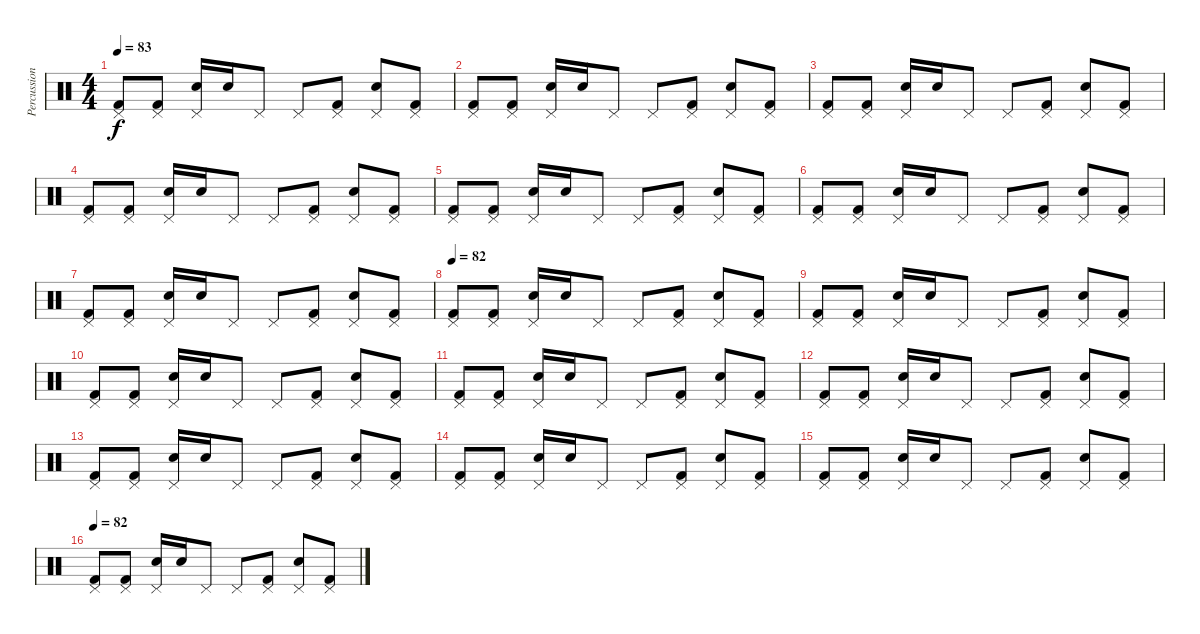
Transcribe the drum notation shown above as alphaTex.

\track ("Percussion" "Percussion") {instrument percussion}
\staff {score}
\articulation defaults
\ts (4 4)
\tempo 83
\clef neutral
\ks c
("Pedal Hi-Hat (hit)" "Kick (hit) 2").8{dy f} ("Pedal Hi-Hat (hit)" "Kick (hit) 2").8 ("Pedal Hi-Hat (hit)" "Snare (hit) 2").16 "Snare (hit) 2".16 "Pedal Hi-Hat (hit)".8 "Pedal Hi-Hat (hit)".8 ("Pedal Hi-Hat (hit)" "Kick (hit) 2").8 ("Pedal Hi-Hat (hit)" "Snare (hit) 2").8 ("Pedal Hi-Hat (hit)" "Kick (hit) 2").8 |
("Pedal Hi-Hat (hit)" "Kick (hit) 2").8 ("Pedal Hi-Hat (hit)" "Kick (hit) 2").8 ("Pedal Hi-Hat (hit)" "Snare (hit) 2").16 "Snare (hit) 2".16 "Pedal Hi-Hat (hit)".8 "Pedal Hi-Hat (hit)".8 ("Pedal Hi-Hat (hit)" "Kick (hit) 2").8 ("Pedal Hi-Hat (hit)" "Snare (hit) 2").8 ("Pedal Hi-Hat (hit)" "Kick (hit) 2").8 |
("Pedal Hi-Hat (hit)" "Kick (hit) 2").8 ("Pedal Hi-Hat (hit)" "Kick (hit) 2").8 ("Pedal Hi-Hat (hit)" "Snare (hit) 2").16 "Snare (hit) 2".16 "Pedal Hi-Hat (hit)".8 "Pedal Hi-Hat (hit)".8 ("Pedal Hi-Hat (hit)" "Kick (hit) 2").8 ("Pedal Hi-Hat (hit)" "Snare (hit) 2").8 ("Pedal Hi-Hat (hit)" "Kick (hit) 2").8 |
("Pedal Hi-Hat (hit)" "Kick (hit) 2").8 ("Pedal Hi-Hat (hit)" "Kick (hit) 2").8 ("Pedal Hi-Hat (hit)" "Snare (hit) 2").16 "Snare (hit) 2".16 "Pedal Hi-Hat (hit)".8 "Pedal Hi-Hat (hit)".8 ("Pedal Hi-Hat (hit)" "Kick (hit) 2").8 ("Pedal Hi-Hat (hit)" "Snare (hit) 2").8 ("Pedal Hi-Hat (hit)" "Kick (hit) 2").8 |
("Pedal Hi-Hat (hit)" "Kick (hit) 2").8 ("Pedal Hi-Hat (hit)" "Kick (hit) 2").8 ("Pedal Hi-Hat (hit)" "Snare (hit) 2").16 "Snare (hit) 2".16 "Pedal Hi-Hat (hit)".8 "Pedal Hi-Hat (hit)".8 ("Pedal Hi-Hat (hit)" "Kick (hit) 2").8 ("Pedal Hi-Hat (hit)" "Snare (hit) 2").8 ("Pedal Hi-Hat (hit)" "Kick (hit) 2").8 |
("Pedal Hi-Hat (hit)" "Kick (hit) 2").8 ("Pedal Hi-Hat (hit)" "Kick (hit) 2").8 ("Pedal Hi-Hat (hit)" "Snare (hit) 2").16 "Snare (hit) 2".16 "Pedal Hi-Hat (hit)".8 "Pedal Hi-Hat (hit)".8 ("Pedal Hi-Hat (hit)" "Kick (hit) 2").8 ("Pedal Hi-Hat (hit)" "Snare (hit) 2").8 ("Pedal Hi-Hat (hit)" "Kick (hit) 2").8 |
("Pedal Hi-Hat (hit)" "Kick (hit) 2").8 ("Pedal Hi-Hat (hit)" "Kick (hit) 2").8 ("Pedal Hi-Hat (hit)" "Snare (hit) 2").16 "Snare (hit) 2".16 "Pedal Hi-Hat (hit)".8 "Pedal Hi-Hat (hit)".8 ("Pedal Hi-Hat (hit)" "Kick (hit) 2").8 ("Pedal Hi-Hat (hit)" "Snare (hit) 2").8 ("Pedal Hi-Hat (hit)" "Kick (hit) 2").8 |
\tempo 82
("Pedal Hi-Hat (hit)" "Kick (hit) 2").8 ("Pedal Hi-Hat (hit)" "Kick (hit) 2").8 ("Pedal Hi-Hat (hit)" "Snare (hit) 2").16 "Snare (hit) 2".16 "Pedal Hi-Hat (hit)".8 "Pedal Hi-Hat (hit)".8 ("Pedal Hi-Hat (hit)" "Kick (hit) 2").8 ("Pedal Hi-Hat (hit)" "Snare (hit) 2").8 ("Pedal Hi-Hat (hit)" "Kick (hit) 2").8 |
("Pedal Hi-Hat (hit)" "Kick (hit) 2").8 ("Pedal Hi-Hat (hit)" "Kick (hit) 2").8 ("Pedal Hi-Hat (hit)" "Snare (hit) 2").16 "Snare (hit) 2".16 "Pedal Hi-Hat (hit)".8 "Pedal Hi-Hat (hit)".8 ("Pedal Hi-Hat (hit)" "Kick (hit) 2").8 ("Pedal Hi-Hat (hit)" "Snare (hit) 2").8 ("Pedal Hi-Hat (hit)" "Kick (hit) 2").8 |
("Pedal Hi-Hat (hit)" "Kick (hit) 2").8 ("Pedal Hi-Hat (hit)" "Kick (hit) 2").8 ("Pedal Hi-Hat (hit)" "Snare (hit) 2").16 "Snare (hit) 2".16 "Pedal Hi-Hat (hit)".8 "Pedal Hi-Hat (hit)".8 ("Pedal Hi-Hat (hit)" "Kick (hit) 2").8 ("Pedal Hi-Hat (hit)" "Snare (hit) 2").8 ("Pedal Hi-Hat (hit)" "Kick (hit) 2").8 |
("Pedal Hi-Hat (hit)" "Kick (hit) 2").8 ("Pedal Hi-Hat (hit)" "Kick (hit) 2").8 ("Pedal Hi-Hat (hit)" "Snare (hit) 2").16 "Snare (hit) 2".16 "Pedal Hi-Hat (hit)".8 "Pedal Hi-Hat (hit)".8 ("Pedal Hi-Hat (hit)" "Kick (hit) 2").8 ("Pedal Hi-Hat (hit)" "Snare (hit) 2").8 ("Pedal Hi-Hat (hit)" "Kick (hit) 2").8 |
("Pedal Hi-Hat (hit)" "Kick (hit) 2").8 ("Pedal Hi-Hat (hit)" "Kick (hit) 2").8 ("Pedal Hi-Hat (hit)" "Snare (hit) 2").16 "Snare (hit) 2".16 "Pedal Hi-Hat (hit)".8 "Pedal Hi-Hat (hit)".8 ("Pedal Hi-Hat (hit)" "Kick (hit) 2").8 ("Pedal Hi-Hat (hit)" "Snare (hit) 2").8 ("Pedal Hi-Hat (hit)" "Kick (hit) 2").8 |
("Pedal Hi-Hat (hit)" "Kick (hit) 2").8 ("Pedal Hi-Hat (hit)" "Kick (hit) 2").8 ("Pedal Hi-Hat (hit)" "Snare (hit) 2").16 "Snare (hit) 2".16 "Pedal Hi-Hat (hit)".8 "Pedal Hi-Hat (hit)".8 ("Pedal Hi-Hat (hit)" "Kick (hit) 2").8 ("Pedal Hi-Hat (hit)" "Snare (hit) 2").8 ("Pedal Hi-Hat (hit)" "Kick (hit) 2").8 |
("Pedal Hi-Hat (hit)" "Kick (hit) 2").8 ("Pedal Hi-Hat (hit)" "Kick (hit) 2").8 ("Pedal Hi-Hat (hit)" "Snare (hit) 2").16 "Snare (hit) 2".16 "Pedal Hi-Hat (hit)".8 "Pedal Hi-Hat (hit)".8 ("Pedal Hi-Hat (hit)" "Kick (hit) 2").8 ("Pedal Hi-Hat (hit)" "Snare (hit) 2").8 ("Pedal Hi-Hat (hit)" "Kick (hit) 2").8 |
("Pedal Hi-Hat (hit)" "Kick (hit) 2").8 ("Pedal Hi-Hat (hit)" "Kick (hit) 2").8 ("Pedal Hi-Hat (hit)" "Snare (hit) 2").16 "Snare (hit) 2".16 "Pedal Hi-Hat (hit)".8 "Pedal Hi-Hat (hit)".8 ("Pedal Hi-Hat (hit)" "Kick (hit) 2").8 ("Pedal Hi-Hat (hit)" "Snare (hit) 2").8 ("Pedal Hi-Hat (hit)" "Kick (hit) 2").8 |
\tempo 82
("Pedal Hi-Hat (hit)" "Kick (hit) 2").8 ("Pedal Hi-Hat (hit)" "Kick (hit) 2").8 ("Pedal Hi-Hat (hit)" "Snare (hit) 2").16 "Snare (hit) 2".16 "Pedal Hi-Hat (hit)".8 "Pedal Hi-Hat (hit)".8 ("Pedal Hi-Hat (hit)" "Kick (hit) 2").8 ("Pedal Hi-Hat (hit)" "Snare (hit) 2").8 ("Pedal Hi-Hat (hit)" "Kick (hit) 2").8
